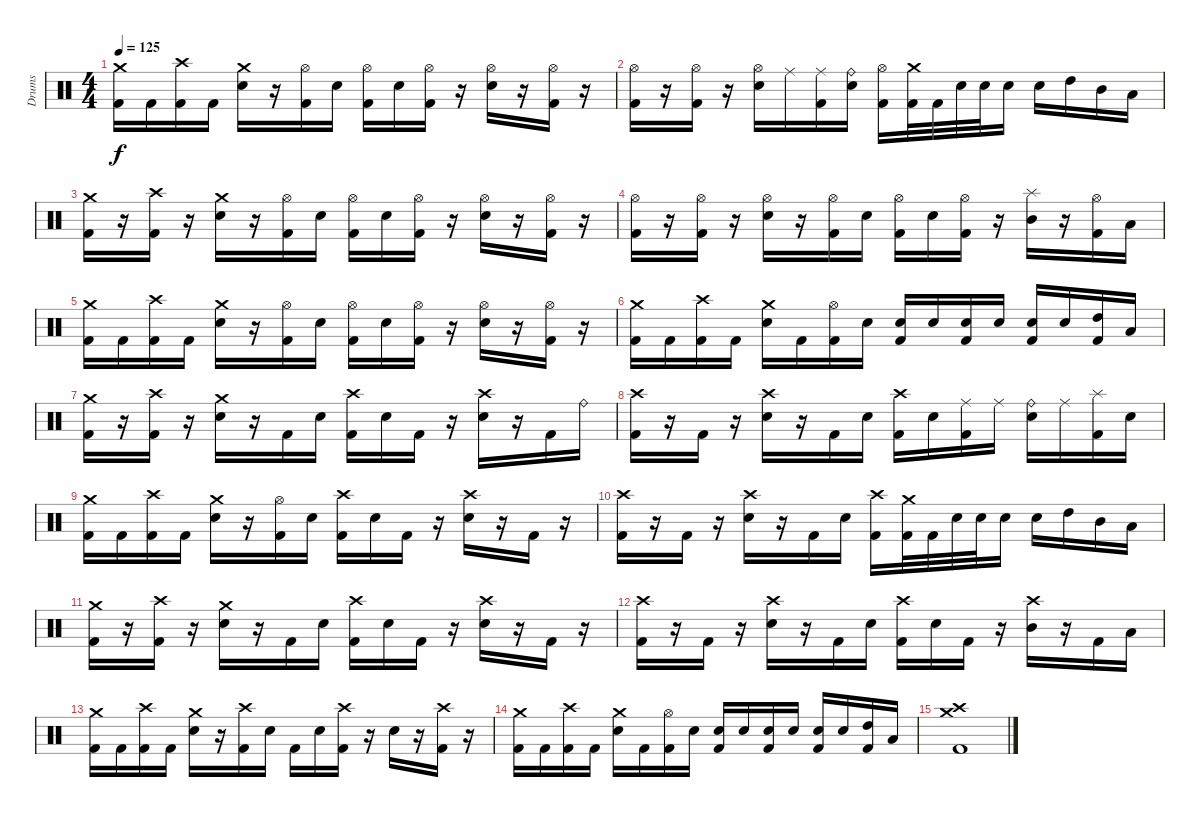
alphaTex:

\track ("Drums" "Drums") {instrument percussion}
\staff {score}
\articulation defaults
\ts (4 4)
\tempo 125
\clef neutral
\ks c
("Crash medium (hit)" "Kick (hit) 2").16{dy f} "Kick (hit) 2".16 ("Crash high (hit)" "Kick (hit) 2").16 "Kick (hit) 2".16 ("Crash medium (hit)" "Electric Snare (hit)").16 r.16 ("Hi-Hat (open)" "Kick (hit) 2").16 "Electric Snare (hit)".16 ("Hi-Hat (open)" "Kick (hit) 2").16 "Electric Snare (hit)".16 ("Hi-Hat (open)" "Kick (hit) 2").16 r.16 ("Hi-Hat (open)" "Electric Snare (hit)").16 r.16 ("Hi-Hat (open)" "Kick (hit) 2").16 r.16 |
("Hi-Hat (open)" "Kick (hit) 2").16 r.16 ("Hi-Hat (open)" "Kick (hit) 2").16 r.16 ("Hi-Hat (open)" "Electric Snare (hit)").16 "Ride (middle)".16 ("Ride (middle)" "Kick (hit) 2").16 ("Ride (bell)" "Electric Snare (hit)").16 ("Hi-Hat (open)" "Kick (hit) 2").16 ("Crash medium (hit)" "Kick (hit) 2").32 "Kick (hit) 2".32 "Electric Snare (hit)".32 "Electric Snare (hit)".32 "Electric Snare (hit)".16 "Electric Snare (hit)".16 "High Tom (hit)".16 "Mid Tom (hit)".16 "Low Tom (hit)".16 |
("Crash medium (hit)" "Kick (hit) 2").16 r.16 ("Crash high (hit)" "Kick (hit) 2").16 r.16 ("Crash medium (hit)" "Electric Snare (hit)").16 r.16 ("Hi-Hat (open)" "Kick (hit) 2").16 "Electric Snare (hit)".16 ("Hi-Hat (open)" "Kick (hit) 2").16 "Electric Snare (hit)".16 ("Hi-Hat (open)" "Kick (hit) 2").16 r.16 ("Hi-Hat (open)" "Electric Snare (hit)").16 r.16 ("Hi-Hat (open)" "Kick (hit) 2").16 r.16 |
("Hi-Hat (open)" "Kick (hit) 2").16 r.16 ("Hi-Hat (open)" "Kick (hit) 2").16 r.16 ("Hi-Hat (open)" "Electric Snare (hit)").16 r.16 ("Hi-Hat (open)" "Kick (hit) 2").16 "Electric Snare (hit)".16 ("Hi-Hat (open)" "Kick (hit) 2").16 "Electric Snare (hit)".16 ("Hi-Hat (open)" "Kick (hit) 2").16 r.16 ("Splash (hit)" "Mid Tom (hit)").16 r.16 ("Hi-Hat (open)" "Kick (hit) 2").16 "Low Tom (hit)".16 |
("Crash medium (hit)" "Kick (hit) 2").16 "Kick (hit) 2".16 ("Crash high (hit)" "Kick (hit) 2").16 "Kick (hit) 2".16 ("Crash medium (hit)" "Electric Snare (hit)").16 r.16 ("Hi-Hat (open)" "Kick (hit) 2").16 "Electric Snare (hit)".16 ("Hi-Hat (open)" "Kick (hit) 2").16 "Electric Snare (hit)".16 ("Hi-Hat (open)" "Kick (hit) 2").16 r.16 ("Hi-Hat (open)" "Electric Snare (hit)").16 r.16 ("Hi-Hat (open)" "Kick (hit) 2").16 r.16 |
("Crash medium (hit)" "Kick (hit) 2").16 "Kick (hit) 2".16 ("Crash high (hit)" "Kick (hit) 2").16 "Kick (hit) 2".16 ("Crash medium (hit)" "Electric Snare (hit)").16 "Kick (hit) 2".16 ("Hi-Hat (open)" "Kick (hit) 2").16 "Electric Snare (hit)".16 ("Electric Snare (hit)" "Kick (hit) 2").16 "Electric Snare (hit)".16 ("Electric Snare (hit)" "Kick (hit) 2").16 "Electric Snare (hit)".16 ("Electric Snare (hit)" "Kick (hit) 2").16 "Electric Snare (hit)".16 ("High Tom (hit)" "Kick (hit) 2").16 "Low Tom (hit)".16 |
("Crash medium (hit)" "Kick (hit) 2").16 r.16 ("Crash high (hit)" "Kick (hit) 2").16 r.16 ("Crash medium (hit)" "Electric Snare (hit)").16 r.16 "Kick (hit) 2".16 "Electric Snare (hit)".16 ("Crash high (hit)" "Kick (hit) 2").16 "Electric Snare (hit)".16 "Kick (hit) 2".16 r.16 ("Crash high (hit)" "Electric Snare (hit)").16 r.16 "Kick (hit) 2".16 "Ride (bell)".16 |
("Crash high (hit)" "Kick (hit) 2").16 r.16 "Kick (hit) 2".16 r.16 ("Crash high (hit)" "Electric Snare (hit)").16 r.16 "Kick (hit) 2".16 "Electric Snare (hit)".16 ("Crash high (hit)" "Kick (hit) 2").16 "Electric Snare (hit)".16 ("Ride (middle)" "Kick (hit) 2").16 "Ride (middle)".16 ("Ride (bell)" "Electric Snare (hit)").16 "Ride (middle)".16 ("Splash (hit)" "Kick (hit) 2").16 "Electric Snare (hit)".16 |
("Crash medium (hit)" "Kick (hit) 2").16 "Kick (hit) 2".16 ("Crash high (hit)" "Kick (hit) 2").16 "Kick (hit) 2".16 ("Crash medium (hit)" "Electric Snare (hit)").16 r.16 ("Hi-Hat (open)" "Kick (hit) 2").16 "Electric Snare (hit)".16 ("Crash high (hit)" "Kick (hit) 2").16 "Electric Snare (hit)".16 "Kick (hit) 2".16 r.16 ("Crash high (hit)" "Electric Snare (hit)").16 r.16 "Kick (hit) 2".16 r.16 |
("Crash high (hit)" "Kick (hit) 2").16 r.16 "Kick (hit) 2".16 r.16 ("Crash high (hit)" "Electric Snare (hit)").16 r.16 "Kick (hit) 2".16 "Electric Snare (hit)".16 ("Crash high (hit)" "Kick (hit) 2").16 ("Crash medium (hit)" "Kick (hit) 2").32 "Kick (hit) 2".32 "Electric Snare (hit)".32 "Electric Snare (hit)".32 "Electric Snare (hit)".16 "Electric Snare (hit)".16 "High Tom (hit)".16 "Mid Tom (hit)".16 "Low Tom (hit)".16 |
("Crash medium (hit)" "Kick (hit) 2").16 r.16 ("Crash high (hit)" "Kick (hit) 2").16 r.16 ("Crash medium (hit)" "Electric Snare (hit)").16 r.16 "Kick (hit) 2".16 "Electric Snare (hit)".16 ("Crash high (hit)" "Kick (hit) 2").16 "Electric Snare (hit)".16 "Kick (hit) 2".16 r.16 ("Crash high (hit)" "Electric Snare (hit)").16 r.16 "Kick (hit) 2".16 r.16 |
("Crash high (hit)" "Kick (hit) 2").16 r.16 "Kick (hit) 2".16 r.16 ("Crash high (hit)" "Electric Snare (hit)").16 r.16 "Kick (hit) 2".16 "Electric Snare (hit)".16 ("Crash high (hit)" "Kick (hit) 2").16 "Electric Snare (hit)".16 "Kick (hit) 2".16 r.16 ("Crash high (hit)" "Mid Tom (hit)").16 r.16 "Kick (hit) 2".16 "Low Tom (hit)".16 |
("Crash medium (hit)" "Kick (hit) 2").16 "Kick (hit) 2".16 ("Crash high (hit)" "Kick (hit) 2").16 "Kick (hit) 2".16 ("Crash medium (hit)" "Electric Snare (hit)").16 r.16 ("Crash high (hit)" "Kick (hit) 2").16 "Electric Snare (hit)".16 "Kick (hit) 2".16 "Electric Snare (hit)".16 ("Crash high (hit)" "Kick (hit) 2").16 r.16 "Electric Snare (hit)".16 r.16 ("Crash high (hit)" "Kick (hit) 2").16 r.16 |
("Crash medium (hit)" "Kick (hit) 2").16 "Kick (hit) 2".16 ("Crash high (hit)" "Kick (hit) 2").16 "Kick (hit) 2".16 ("Crash medium (hit)" "Electric Snare (hit)").16 "Kick (hit) 2".16 ("Hi-Hat (open)" "Kick (hit) 2").16 "Electric Snare (hit)".16 ("Electric Snare (hit)" "Kick (hit) 2").16 "Electric Snare (hit)".16 ("Electric Snare (hit)" "Kick (hit) 2").16 "Electric Snare (hit)".16 ("Electric Snare (hit)" "Kick (hit) 2").16 "Electric Snare (hit)".16 ("High Tom (hit)" "Kick (hit) 2").16 "Low Tom (hit)".16 |
("Crash medium (hit)" "Crash high (hit)" "Kick (hit) 2").1
